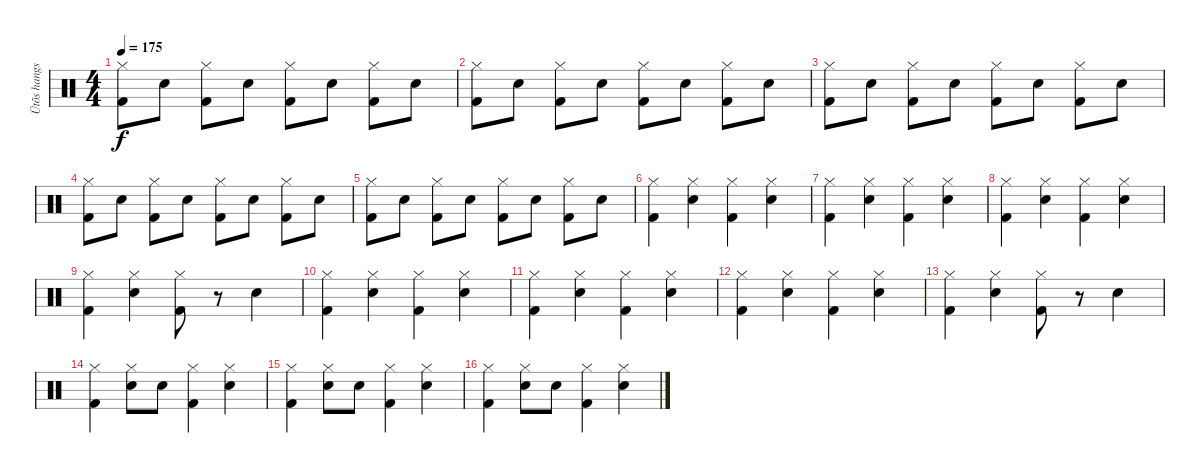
\track ("Ütõs hangszer" "Ütõs hangs") {instrument percussion}
\staff {score}
\articulation defaults
\ts (4 4)
\tempo 175
\clef neutral
\ks c
("Hi-Hat (closed)" "Kick (hit) 2").8{dy f} "Electric Snare (hit)".8 ("Hi-Hat (closed)" "Kick (hit) 2").8 "Electric Snare (hit)".8 ("Hi-Hat (closed)" "Kick (hit) 2").8 "Electric Snare (hit)".8 ("Hi-Hat (closed)" "Kick (hit) 2").8 "Electric Snare (hit)".8 |
("Hi-Hat (closed)" "Kick (hit) 2").8 "Electric Snare (hit)".8 ("Hi-Hat (closed)" "Kick (hit) 2").8 "Electric Snare (hit)".8 ("Hi-Hat (closed)" "Kick (hit) 2").8 "Electric Snare (hit)".8 ("Hi-Hat (closed)" "Kick (hit) 2").8 "Electric Snare (hit)".8 |
("Hi-Hat (closed)" "Kick (hit) 2").8 "Electric Snare (hit)".8 ("Hi-Hat (closed)" "Kick (hit) 2").8 "Electric Snare (hit)".8 ("Hi-Hat (closed)" "Kick (hit) 2").8 "Electric Snare (hit)".8 ("Hi-Hat (closed)" "Kick (hit) 2").8 "Electric Snare (hit)".8 |
("Hi-Hat (closed)" "Kick (hit) 2").8 "Electric Snare (hit)".8 ("Hi-Hat (closed)" "Kick (hit) 2").8 "Electric Snare (hit)".8 ("Hi-Hat (closed)" "Kick (hit) 2").8 "Electric Snare (hit)".8 ("Hi-Hat (closed)" "Kick (hit) 2").8 "Electric Snare (hit)".8 |
("Hi-Hat (closed)" "Kick (hit) 2").8 "Electric Snare (hit)".8 ("Hi-Hat (closed)" "Kick (hit) 2").8 "Electric Snare (hit)".8 ("Hi-Hat (closed)" "Kick (hit) 2").8 "Electric Snare (hit)".8 ("Hi-Hat (closed)" "Kick (hit) 2").8 "Electric Snare (hit)".8 |
("Hi-Hat (closed)" "Kick (hit) 2").4 ("Hi-Hat (closed)" "Electric Snare (hit)").4 ("Hi-Hat (closed)" "Kick (hit) 2").4 ("Hi-Hat (closed)" "Electric Snare (hit)").4 |
("Hi-Hat (closed)" "Kick (hit) 2").4 ("Hi-Hat (closed)" "Electric Snare (hit)").4 ("Hi-Hat (closed)" "Kick (hit) 2").4 ("Hi-Hat (closed)" "Electric Snare (hit)").4 |
("Hi-Hat (closed)" "Kick (hit) 2").4 ("Hi-Hat (closed)" "Electric Snare (hit)").4 ("Hi-Hat (closed)" "Kick (hit) 2").4 ("Hi-Hat (closed)" "Electric Snare (hit)").4 |
("Hi-Hat (closed)" "Kick (hit) 2").4 ("Hi-Hat (closed)" "Electric Snare (hit)").4 ("Hi-Hat (closed)" "Kick (hit) 2").8 r.8 "Electric Snare (hit)".4 |
("Hi-Hat (closed)" "Kick (hit) 2").4 ("Hi-Hat (closed)" "Electric Snare (hit)").4 ("Hi-Hat (closed)" "Kick (hit) 2").4 ("Hi-Hat (closed)" "Electric Snare (hit)").4 |
("Hi-Hat (closed)" "Kick (hit) 2").4 ("Hi-Hat (closed)" "Electric Snare (hit)").4 ("Hi-Hat (closed)" "Kick (hit) 2").4 ("Hi-Hat (closed)" "Electric Snare (hit)").4 |
("Hi-Hat (closed)" "Kick (hit) 2").4 ("Hi-Hat (closed)" "Electric Snare (hit)").4 ("Hi-Hat (closed)" "Kick (hit) 2").4 ("Hi-Hat (closed)" "Electric Snare (hit)").4 |
("Hi-Hat (closed)" "Kick (hit) 2").4 ("Hi-Hat (closed)" "Electric Snare (hit)").4 ("Hi-Hat (closed)" "Kick (hit) 2").8 r.8 "Electric Snare (hit)".4 |
("Hi-Hat (closed)" "Kick (hit) 2").4 ("Hi-Hat (closed)" "Electric Snare (hit)").8 "Electric Snare (hit)".8 ("Hi-Hat (closed)" "Kick (hit) 2").4 ("Hi-Hat (closed)" "Electric Snare (hit)").4 |
("Hi-Hat (closed)" "Kick (hit) 2").4 ("Hi-Hat (closed)" "Electric Snare (hit)").8 "Electric Snare (hit)".8 ("Hi-Hat (closed)" "Kick (hit) 2").4 ("Hi-Hat (closed)" "Electric Snare (hit)").4 |
("Hi-Hat (closed)" "Kick (hit) 2").4 ("Hi-Hat (closed)" "Electric Snare (hit)").8 "Electric Snare (hit)".8 ("Hi-Hat (closed)" "Kick (hit) 2").4 ("Hi-Hat (closed)" "Electric Snare (hit)").4
